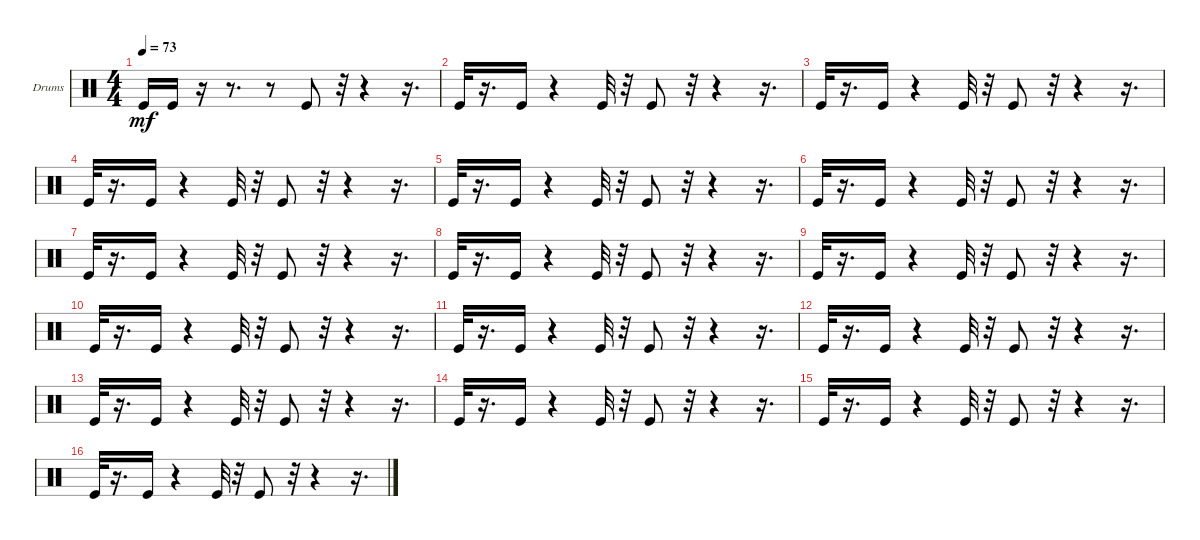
\bracketExtendMode groupsimilarinstruments
\firstSystemTrackNameOrientation horizontal
\otherSystemsTrackNameOrientation horizontal
\track ("kick" "Drums") {instrument percussion}
\staff {score}
\articulation defaults
\ts (4 4)
\tempo 73
\clef neutral
\ks c "Kick (hit)".16{dy mf} "Kick (hit)".16
r.16 r.8{d} r.8 "Kick (hit)".8 r.32 r.4 r.16{d} |
"Kick (hit)".32 r.16{d} "Kick (hit)".16 r.4 "Kick (hit)".32 r.32 "Kick (hit)".8 r.32 r.4 r.16{d} |
"Kick (hit)".32 r.16{d} "Kick (hit)".16 r.4 "Kick (hit)".32 r.32 "Kick (hit)".8 r.32 r.4 r.16{d} |
"Kick (hit)".32 r.16{d} "Kick (hit)".16 r.4 "Kick (hit)".32 r.32 "Kick (hit)".8 r.32 r.4 r.16{d} |
"Kick (hit)".32 r.16{d} "Kick (hit)".16 r.4 "Kick (hit)".32 r.32 "Kick (hit)".8 r.32 r.4 r.16{d} |
"Kick (hit)".32 r.16{d} "Kick (hit)".16 r.4 "Kick (hit)".32 r.32 "Kick (hit)".8 r.32 r.4 r.16{d} |
"Kick (hit)".32 r.16{d} "Kick (hit)".16 r.4 "Kick (hit)".32 r.32 "Kick (hit)".8 r.32 r.4 r.16{d} |
"Kick (hit)".32 r.16{d} "Kick (hit)".16 r.4 "Kick (hit)".32 r.32 "Kick (hit)".8 r.32 r.4 r.16{d} |
"Kick (hit)".32 r.16{d} "Kick (hit)".16 r.4 "Kick (hit)".32 r.32 "Kick (hit)".8 r.32 r.4 r.16{d} |
"Kick (hit)".32 r.16{d} "Kick (hit)".16 r.4 "Kick (hit)".32 r.32 "Kick (hit)".8 r.32 r.4 r.16{d} |
"Kick (hit)".32 r.16{d} "Kick (hit)".16 r.4 "Kick (hit)".32 r.32 "Kick (hit)".8 r.32 r.4 r.16{d} |
"Kick (hit)".32 r.16{d} "Kick (hit)".16 r.4 "Kick (hit)".32 r.32 "Kick (hit)".8 r.32 r.4 r.16{d} |
"Kick (hit)".32 r.16{d} "Kick (hit)".16 r.4 "Kick (hit)".32 r.32 "Kick (hit)".8 r.32 r.4 r.16{d} |
"Kick (hit)".32 r.16{d} "Kick (hit)".16 r.4 "Kick (hit)".32 r.32 "Kick (hit)".8 r.32 r.4 r.16{d} |
"Kick (hit)".32 r.16{d} "Kick (hit)".16 r.4 "Kick (hit)".32 r.32 "Kick (hit)".8 r.32 r.4 r.16{d} |
"Kick (hit)".32 r.16{d} "Kick (hit)".16 r.4 "Kick (hit)".32 r.32 "Kick (hit)".8 r.32 r.4 r.16{d}
